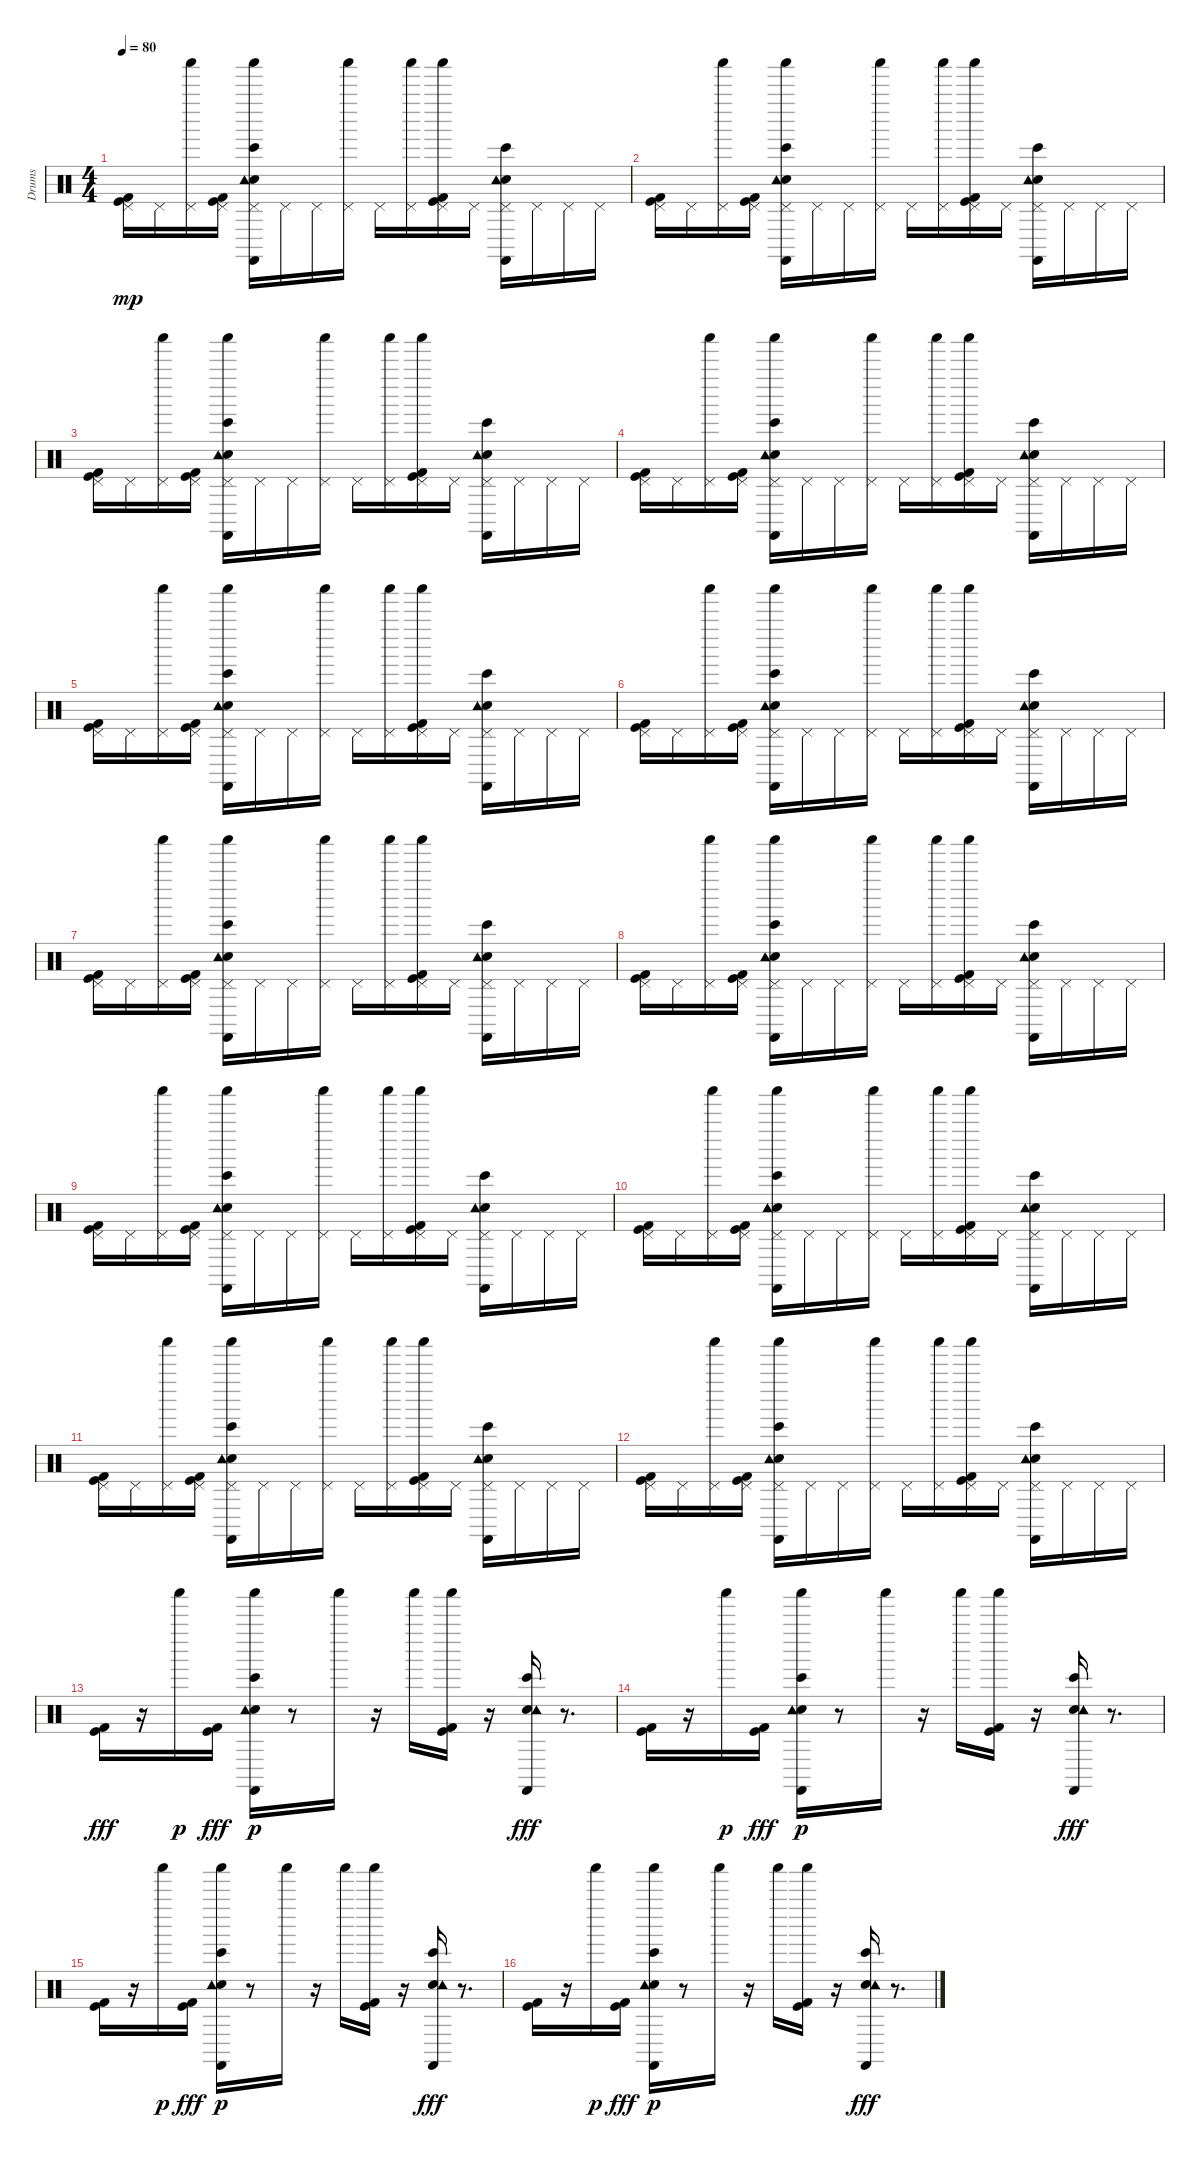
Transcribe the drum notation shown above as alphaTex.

\track ("Drums" "Drums") {instrument percussion}
\staff {score}
\articulation defaults
\ts (4 4)
\tempo 80
\clef neutral
\ks c
("Kick (hit)" "Kick (hit) 2" "Pedal Hi-Hat (hit)").16{dy mp} "Pedal Hi-Hat (hit)".16 ("Shaker (hit)" "Pedal Hi-Hat (hit)").16 ("Kick (hit)" "Kick (hit) 2" "Pedal Hi-Hat (hit)").16 ("Castanets (hit)" "Hand Clap (hit)" "Shaker (hit)" "Tambourine (hit)" "Bongo High (hit)" "Pedal Hi-Hat (hit)").16 "Pedal Hi-Hat (hit)".16 "Pedal Hi-Hat (hit)".16 ("Shaker (hit)" "Pedal Hi-Hat (hit)").16 "Pedal Hi-Hat (hit)".16 ("Shaker (hit)" "Pedal Hi-Hat (hit)").16 ("Kick (hit)" "Kick (hit) 2" "Shaker (hit)" "Pedal Hi-Hat (hit)").16 "Pedal Hi-Hat (hit)".16 ("Castanets (hit)" "Hand Clap (hit)" "Tambourine (hit)" "Bongo High (hit)" "Pedal Hi-Hat (hit)").16 "Pedal Hi-Hat (hit)".16 "Pedal Hi-Hat (hit)".16 "Pedal Hi-Hat (hit)".16 |
("Kick (hit)" "Kick (hit) 2" "Pedal Hi-Hat (hit)").16 "Pedal Hi-Hat (hit)".16 ("Shaker (hit)" "Pedal Hi-Hat (hit)").16 ("Kick (hit)" "Kick (hit) 2" "Pedal Hi-Hat (hit)").16 ("Castanets (hit)" "Hand Clap (hit)" "Shaker (hit)" "Tambourine (hit)" "Bongo High (hit)" "Pedal Hi-Hat (hit)").16 "Pedal Hi-Hat (hit)".16 "Pedal Hi-Hat (hit)".16 ("Shaker (hit)" "Pedal Hi-Hat (hit)").16 "Pedal Hi-Hat (hit)".16 ("Shaker (hit)" "Pedal Hi-Hat (hit)").16 ("Kick (hit)" "Kick (hit) 2" "Shaker (hit)" "Pedal Hi-Hat (hit)").16 "Pedal Hi-Hat (hit)".16 ("Castanets (hit)" "Hand Clap (hit)" "Tambourine (hit)" "Bongo High (hit)" "Pedal Hi-Hat (hit)").16 "Pedal Hi-Hat (hit)".16 "Pedal Hi-Hat (hit)".16 "Pedal Hi-Hat (hit)".16 |
("Kick (hit)" "Kick (hit) 2" "Pedal Hi-Hat (hit)").16 "Pedal Hi-Hat (hit)".16 ("Shaker (hit)" "Pedal Hi-Hat (hit)").16 ("Kick (hit)" "Kick (hit) 2" "Pedal Hi-Hat (hit)").16 ("Castanets (hit)" "Hand Clap (hit)" "Shaker (hit)" "Tambourine (hit)" "Bongo High (hit)" "Pedal Hi-Hat (hit)").16 "Pedal Hi-Hat (hit)".16 "Pedal Hi-Hat (hit)".16 ("Shaker (hit)" "Pedal Hi-Hat (hit)").16 "Pedal Hi-Hat (hit)".16 ("Shaker (hit)" "Pedal Hi-Hat (hit)").16 ("Kick (hit)" "Kick (hit) 2" "Shaker (hit)" "Pedal Hi-Hat (hit)").16 "Pedal Hi-Hat (hit)".16 ("Castanets (hit)" "Hand Clap (hit)" "Tambourine (hit)" "Bongo High (hit)" "Pedal Hi-Hat (hit)").16 "Pedal Hi-Hat (hit)".16 "Pedal Hi-Hat (hit)".16 "Pedal Hi-Hat (hit)".16 |
("Kick (hit)" "Kick (hit) 2" "Pedal Hi-Hat (hit)").16 "Pedal Hi-Hat (hit)".16 ("Shaker (hit)" "Pedal Hi-Hat (hit)").16 ("Kick (hit)" "Kick (hit) 2" "Pedal Hi-Hat (hit)").16 ("Castanets (hit)" "Hand Clap (hit)" "Shaker (hit)" "Tambourine (hit)" "Bongo High (hit)" "Pedal Hi-Hat (hit)").16 "Pedal Hi-Hat (hit)".16 "Pedal Hi-Hat (hit)".16 ("Shaker (hit)" "Pedal Hi-Hat (hit)").16 "Pedal Hi-Hat (hit)".16 ("Shaker (hit)" "Pedal Hi-Hat (hit)").16 ("Kick (hit)" "Kick (hit) 2" "Shaker (hit)" "Pedal Hi-Hat (hit)").16 "Pedal Hi-Hat (hit)".16 ("Castanets (hit)" "Hand Clap (hit)" "Tambourine (hit)" "Bongo High (hit)" "Pedal Hi-Hat (hit)").16 "Pedal Hi-Hat (hit)".16 "Pedal Hi-Hat (hit)".16 "Pedal Hi-Hat (hit)".16 |
("Kick (hit)" "Kick (hit) 2" "Pedal Hi-Hat (hit)").16 "Pedal Hi-Hat (hit)".16 ("Shaker (hit)" "Pedal Hi-Hat (hit)").16 ("Kick (hit)" "Kick (hit) 2" "Pedal Hi-Hat (hit)").16 ("Castanets (hit)" "Hand Clap (hit)" "Shaker (hit)" "Tambourine (hit)" "Bongo High (hit)" "Pedal Hi-Hat (hit)").16 "Pedal Hi-Hat (hit)".16 "Pedal Hi-Hat (hit)".16 ("Shaker (hit)" "Pedal Hi-Hat (hit)").16 "Pedal Hi-Hat (hit)".16 ("Shaker (hit)" "Pedal Hi-Hat (hit)").16 ("Kick (hit)" "Kick (hit) 2" "Shaker (hit)" "Pedal Hi-Hat (hit)").16 "Pedal Hi-Hat (hit)".16 ("Castanets (hit)" "Hand Clap (hit)" "Tambourine (hit)" "Bongo High (hit)" "Pedal Hi-Hat (hit)").16 "Pedal Hi-Hat (hit)".16 "Pedal Hi-Hat (hit)".16 "Pedal Hi-Hat (hit)".16 |
("Kick (hit)" "Kick (hit) 2" "Pedal Hi-Hat (hit)").16 "Pedal Hi-Hat (hit)".16 ("Shaker (hit)" "Pedal Hi-Hat (hit)").16 ("Kick (hit)" "Kick (hit) 2" "Pedal Hi-Hat (hit)").16 ("Castanets (hit)" "Hand Clap (hit)" "Shaker (hit)" "Tambourine (hit)" "Bongo High (hit)" "Pedal Hi-Hat (hit)").16 "Pedal Hi-Hat (hit)".16 "Pedal Hi-Hat (hit)".16 ("Shaker (hit)" "Pedal Hi-Hat (hit)").16 "Pedal Hi-Hat (hit)".16 ("Shaker (hit)" "Pedal Hi-Hat (hit)").16 ("Kick (hit)" "Kick (hit) 2" "Shaker (hit)" "Pedal Hi-Hat (hit)").16 "Pedal Hi-Hat (hit)".16 ("Castanets (hit)" "Hand Clap (hit)" "Tambourine (hit)" "Bongo High (hit)" "Pedal Hi-Hat (hit)").16 "Pedal Hi-Hat (hit)".16 "Pedal Hi-Hat (hit)".16 "Pedal Hi-Hat (hit)".16 |
("Kick (hit)" "Kick (hit) 2" "Pedal Hi-Hat (hit)").16 "Pedal Hi-Hat (hit)".16 ("Shaker (hit)" "Pedal Hi-Hat (hit)").16 ("Kick (hit)" "Kick (hit) 2" "Pedal Hi-Hat (hit)").16 ("Castanets (hit)" "Hand Clap (hit)" "Shaker (hit)" "Tambourine (hit)" "Bongo High (hit)" "Pedal Hi-Hat (hit)").16 "Pedal Hi-Hat (hit)".16 "Pedal Hi-Hat (hit)".16 ("Shaker (hit)" "Pedal Hi-Hat (hit)").16 "Pedal Hi-Hat (hit)".16 ("Shaker (hit)" "Pedal Hi-Hat (hit)").16 ("Kick (hit)" "Kick (hit) 2" "Shaker (hit)" "Pedal Hi-Hat (hit)").16 "Pedal Hi-Hat (hit)".16 ("Castanets (hit)" "Hand Clap (hit)" "Tambourine (hit)" "Bongo High (hit)" "Pedal Hi-Hat (hit)").16 "Pedal Hi-Hat (hit)".16 "Pedal Hi-Hat (hit)".16 "Pedal Hi-Hat (hit)".16 |
("Kick (hit)" "Kick (hit) 2" "Pedal Hi-Hat (hit)").16 "Pedal Hi-Hat (hit)".16 ("Shaker (hit)" "Pedal Hi-Hat (hit)").16 ("Kick (hit)" "Kick (hit) 2" "Pedal Hi-Hat (hit)").16 ("Castanets (hit)" "Hand Clap (hit)" "Shaker (hit)" "Tambourine (hit)" "Bongo High (hit)" "Pedal Hi-Hat (hit)").16 "Pedal Hi-Hat (hit)".16 "Pedal Hi-Hat (hit)".16 ("Shaker (hit)" "Pedal Hi-Hat (hit)").16 "Pedal Hi-Hat (hit)".16 ("Shaker (hit)" "Pedal Hi-Hat (hit)").16 ("Kick (hit)" "Kick (hit) 2" "Shaker (hit)" "Pedal Hi-Hat (hit)").16 "Pedal Hi-Hat (hit)".16 ("Castanets (hit)" "Hand Clap (hit)" "Tambourine (hit)" "Bongo High (hit)" "Pedal Hi-Hat (hit)").16 "Pedal Hi-Hat (hit)".16 "Pedal Hi-Hat (hit)".16 "Pedal Hi-Hat (hit)".16 |
("Kick (hit)" "Kick (hit) 2" "Pedal Hi-Hat (hit)").16 "Pedal Hi-Hat (hit)".16 ("Shaker (hit)" "Pedal Hi-Hat (hit)").16 ("Kick (hit)" "Kick (hit) 2" "Pedal Hi-Hat (hit)").16 ("Castanets (hit)" "Hand Clap (hit)" "Shaker (hit)" "Tambourine (hit)" "Bongo High (hit)" "Pedal Hi-Hat (hit)").16 "Pedal Hi-Hat (hit)".16 "Pedal Hi-Hat (hit)".16 ("Shaker (hit)" "Pedal Hi-Hat (hit)").16 "Pedal Hi-Hat (hit)".16 ("Shaker (hit)" "Pedal Hi-Hat (hit)").16 ("Kick (hit)" "Kick (hit) 2" "Shaker (hit)" "Pedal Hi-Hat (hit)").16 "Pedal Hi-Hat (hit)".16 ("Castanets (hit)" "Hand Clap (hit)" "Tambourine (hit)" "Bongo High (hit)" "Pedal Hi-Hat (hit)").16 "Pedal Hi-Hat (hit)".16 "Pedal Hi-Hat (hit)".16 "Pedal Hi-Hat (hit)".16 |
("Kick (hit)" "Kick (hit) 2" "Pedal Hi-Hat (hit)").16 "Pedal Hi-Hat (hit)".16 ("Shaker (hit)" "Pedal Hi-Hat (hit)").16 ("Kick (hit)" "Kick (hit) 2" "Pedal Hi-Hat (hit)").16 ("Castanets (hit)" "Hand Clap (hit)" "Shaker (hit)" "Tambourine (hit)" "Bongo High (hit)" "Pedal Hi-Hat (hit)").16 "Pedal Hi-Hat (hit)".16 "Pedal Hi-Hat (hit)".16 ("Shaker (hit)" "Pedal Hi-Hat (hit)").16 "Pedal Hi-Hat (hit)".16 ("Shaker (hit)" "Pedal Hi-Hat (hit)").16 ("Kick (hit)" "Kick (hit) 2" "Shaker (hit)" "Pedal Hi-Hat (hit)").16 "Pedal Hi-Hat (hit)".16 ("Castanets (hit)" "Hand Clap (hit)" "Tambourine (hit)" "Bongo High (hit)" "Pedal Hi-Hat (hit)").16 "Pedal Hi-Hat (hit)".16 "Pedal Hi-Hat (hit)".16 "Pedal Hi-Hat (hit)".16 |
("Kick (hit)" "Kick (hit) 2" "Pedal Hi-Hat (hit)").16 "Pedal Hi-Hat (hit)".16 ("Shaker (hit)" "Pedal Hi-Hat (hit)").16 ("Kick (hit)" "Kick (hit) 2" "Pedal Hi-Hat (hit)").16 ("Castanets (hit)" "Hand Clap (hit)" "Shaker (hit)" "Tambourine (hit)" "Bongo High (hit)" "Pedal Hi-Hat (hit)").16 "Pedal Hi-Hat (hit)".16 "Pedal Hi-Hat (hit)".16 ("Shaker (hit)" "Pedal Hi-Hat (hit)").16 "Pedal Hi-Hat (hit)".16 ("Shaker (hit)" "Pedal Hi-Hat (hit)").16 ("Kick (hit)" "Kick (hit) 2" "Shaker (hit)" "Pedal Hi-Hat (hit)").16 "Pedal Hi-Hat (hit)".16 ("Castanets (hit)" "Hand Clap (hit)" "Tambourine (hit)" "Bongo High (hit)" "Pedal Hi-Hat (hit)").16 "Pedal Hi-Hat (hit)".16 "Pedal Hi-Hat (hit)".16 "Pedal Hi-Hat (hit)".16 |
("Kick (hit)" "Kick (hit) 2" "Pedal Hi-Hat (hit)").16 "Pedal Hi-Hat (hit)".16 ("Shaker (hit)" "Pedal Hi-Hat (hit)").16 ("Kick (hit)" "Kick (hit) 2" "Pedal Hi-Hat (hit)").16 ("Castanets (hit)" "Hand Clap (hit)" "Shaker (hit)" "Tambourine (hit)" "Bongo High (hit)" "Pedal Hi-Hat (hit)").16 "Pedal Hi-Hat (hit)".16 "Pedal Hi-Hat (hit)".16 ("Shaker (hit)" "Pedal Hi-Hat (hit)").16 "Pedal Hi-Hat (hit)".16 ("Shaker (hit)" "Pedal Hi-Hat (hit)").16 ("Kick (hit)" "Kick (hit) 2" "Shaker (hit)" "Pedal Hi-Hat (hit)").16 "Pedal Hi-Hat (hit)".16 ("Castanets (hit)" "Hand Clap (hit)" "Tambourine (hit)" "Bongo High (hit)" "Pedal Hi-Hat (hit)").16 "Pedal Hi-Hat (hit)".16 "Pedal Hi-Hat (hit)".16 "Pedal Hi-Hat (hit)".16 |
("Kick (hit)" "Kick (hit) 2").16{dy fff} r.16 "Shaker (hit)".16{dy p} ("Kick (hit)" "Kick (hit) 2").16{dy fff} ("Castanets (hit)" "Hand Clap (hit)" "Shaker (hit)" "Tambourine (hit)" "Bongo High (hit)").16{dy p} r.8 "Shaker (hit)".16 r.16 "Shaker (hit)".16 ("Kick (hit)" "Kick (hit) 2" "Shaker (hit)").16 r.16 ("Castanets (hit)" "Hand Clap (hit)" "Tambourine (hit)" "Bongo High (hit)").16{dy fff} r.8{d} |
("Kick (hit)" "Kick (hit) 2").16 r.16 "Shaker (hit)".16{dy p} ("Kick (hit)" "Kick (hit) 2").16{dy fff} ("Castanets (hit)" "Hand Clap (hit)" "Shaker (hit)" "Tambourine (hit)" "Bongo High (hit)").16{dy p} r.8 "Shaker (hit)".16 r.16 "Shaker (hit)".16 ("Kick (hit)" "Kick (hit) 2" "Shaker (hit)").16 r.16 ("Castanets (hit)" "Hand Clap (hit)" "Tambourine (hit)" "Bongo High (hit)").16{dy fff} r.8{d} |
("Kick (hit)" "Kick (hit) 2").16 r.16 "Shaker (hit)".16{dy p} ("Kick (hit)" "Kick (hit) 2").16{dy fff} ("Castanets (hit)" "Hand Clap (hit)" "Shaker (hit)" "Tambourine (hit)" "Bongo High (hit)").16{dy p} r.8 "Shaker (hit)".16 r.16 "Shaker (hit)".16 ("Kick (hit)" "Kick (hit) 2" "Shaker (hit)").16 r.16 ("Castanets (hit)" "Hand Clap (hit)" "Tambourine (hit)" "Bongo High (hit)").16{dy fff} r.8{d} |
("Kick (hit)" "Kick (hit) 2").16 r.16 "Shaker (hit)".16{dy p} ("Kick (hit)" "Kick (hit) 2").16{dy fff} ("Castanets (hit)" "Hand Clap (hit)" "Shaker (hit)" "Tambourine (hit)" "Bongo High (hit)").16{dy p} r.8 "Shaker (hit)".16 r.16 "Shaker (hit)".16 ("Kick (hit)" "Kick (hit) 2" "Shaker (hit)").16 r.16 ("Castanets (hit)" "Hand Clap (hit)" "Tambourine (hit)" "Bongo High (hit)").16{dy fff} r.8{d}
